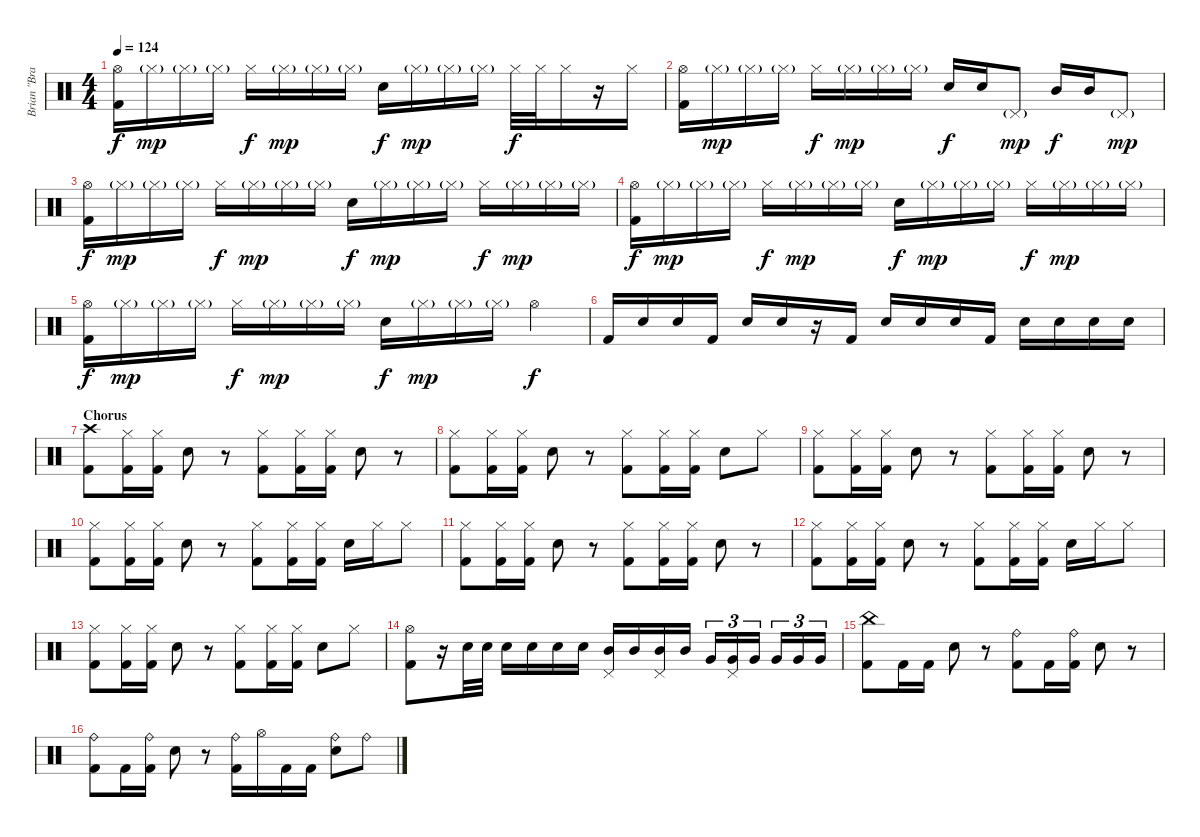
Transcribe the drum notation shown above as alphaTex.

\track ("Brian \"Brain\" Mantia / Drums" "Brian \"Bra") {instrument percussion}
\staff {score}
\articulation defaults
\ts (4 4)
\tempo 124
\clef neutral
\ks c
("Hi-Hat (open)" "Kick (hit) 2").16{dy f} "Hi-Hat (closed)"{g}.16{dy mp} "Hi-Hat (closed)"{g}.16 "Hi-Hat (closed)"{g}.16 "Hi-Hat (closed)".16{dy f} "Hi-Hat (closed)"{g}.16{dy mp} "Hi-Hat (closed)"{g}.16 "Hi-Hat (closed)"{g}.16 "Electric Snare (hit)".16{dy f} "Hi-Hat (closed)"{g}.16{dy mp} "Hi-Hat (closed)"{g}.16 "Hi-Hat (closed)"{g}.16 "Hi-Hat (closed)".32{dy f} "Hi-Hat (closed)".32 "Hi-Hat (closed)".16 r.16 "Hi-Hat (closed)".16 |
("Hi-Hat (open)" "Kick (hit) 2").16 "Hi-Hat (closed)"{g}.16{dy mp} "Hi-Hat (closed)"{g}.16 "Hi-Hat (closed)"{g}.16 "Hi-Hat (closed)".16{dy f} "Hi-Hat (closed)"{g}.16{dy mp} "Hi-Hat (closed)"{g}.16 "Hi-Hat (closed)"{g}.16 "Electric Snare (hit)".16{dy f} "Electric Snare (hit)".16 "Pedal Hi-Hat (hit)"{g}.8{dy mp} "Mid Tom (hit)".16{dy f} "Mid Tom (hit)".16 "Pedal Hi-Hat (hit)"{g}.8{dy mp} |
("Hi-Hat (open)" "Kick (hit) 2").16{dy f} "Hi-Hat (closed)"{g}.16{dy mp} "Hi-Hat (closed)"{g}.16 "Hi-Hat (closed)"{g}.16 "Hi-Hat (closed)".16{dy f} "Hi-Hat (closed)"{g}.16{dy mp} "Hi-Hat (closed)"{g}.16 "Hi-Hat (closed)"{g}.16 "Electric Snare (hit)".16{dy f} "Hi-Hat (closed)"{g}.16{dy mp} "Hi-Hat (closed)"{g}.16 "Hi-Hat (closed)"{g}.16 "Hi-Hat (closed)".16{dy f} "Hi-Hat (closed)"{g}.16{dy mp} "Hi-Hat (closed)"{g}.16 "Hi-Hat (closed)"{g}.16 |
("Hi-Hat (open)" "Kick (hit) 2").16{dy f} "Hi-Hat (closed)"{g}.16{dy mp} "Hi-Hat (closed)"{g}.16 "Hi-Hat (closed)"{g}.16 "Hi-Hat (closed)".16{dy f} "Hi-Hat (closed)"{g}.16{dy mp} "Hi-Hat (closed)"{g}.16 "Hi-Hat (closed)"{g}.16 "Electric Snare (hit)".16{dy f} "Hi-Hat (closed)"{g}.16{dy mp} "Hi-Hat (closed)"{g}.16 "Hi-Hat (closed)"{g}.16 "Hi-Hat (closed)".16{dy f} "Hi-Hat (closed)"{g}.16{dy mp} "Hi-Hat (closed)"{g}.16 "Hi-Hat (closed)"{g}.16 |
("Hi-Hat (open)" "Kick (hit) 2").16{dy f} "Hi-Hat (closed)"{g}.16{dy mp} "Hi-Hat (closed)"{g}.16 "Hi-Hat (closed)"{g}.16 "Hi-Hat (closed)".16{dy f} "Hi-Hat (closed)"{g}.16{dy mp} "Hi-Hat (closed)"{g}.16 "Hi-Hat (closed)"{g}.16 "Electric Snare (hit)".16{dy f} "Hi-Hat (closed)"{g}.16{dy mp} "Hi-Hat (closed)"{g}.16 "Hi-Hat (closed)"{g}.16 "Hi-Hat (open)".4{dy f} |
"Kick (hit) 2".16 "Electric Snare (hit)".16 "Electric Snare (hit)".16 "Kick (hit) 2".16 "Electric Snare (hit)".16 "Electric Snare (hit)".16 r.16 "Kick (hit) 2".16 "Electric Snare (hit)".16 "Electric Snare (hit)".16 "Electric Snare (hit)".16 "Kick (hit) 2".16 "Electric Snare (hit)".16 "Electric Snare (hit)".16 "Electric Snare (hit)".16 "Electric Snare (hit)".16 |
\section ("" "Chorus")
("Crash high (hit)" "Kick (hit) 2").8 ("Hi-Hat (closed)" "Kick (hit) 2").16 ("Hi-Hat (closed)" "Kick (hit) 2").16 "Electric Snare (hit)".8 r.8 ("Hi-Hat (closed)" "Kick (hit) 2").8 ("Hi-Hat (closed)" "Kick (hit) 2").16 ("Hi-Hat (closed)" "Kick (hit) 2").16 "Electric Snare (hit)".8 r.8 |
("Hi-Hat (closed)" "Kick (hit) 2").8 ("Hi-Hat (closed)" "Kick (hit) 2").16 ("Hi-Hat (closed)" "Kick (hit) 2").16 "Electric Snare (hit)".8 r.8 ("Hi-Hat (closed)" "Kick (hit) 2").8 ("Hi-Hat (closed)" "Kick (hit) 2").16 ("Hi-Hat (closed)" "Kick (hit) 2").16 "Electric Snare (hit)".8 "Hi-Hat (closed)".8 |
("Hi-Hat (closed)" "Kick (hit) 2").8 ("Hi-Hat (closed)" "Kick (hit) 2").16 ("Hi-Hat (closed)" "Kick (hit) 2").16 "Electric Snare (hit)".8 r.8 ("Hi-Hat (closed)" "Kick (hit) 2").8 ("Hi-Hat (closed)" "Kick (hit) 2").16 ("Hi-Hat (closed)" "Kick (hit) 2").16 "Electric Snare (hit)".8 r.8 |
("Hi-Hat (closed)" "Kick (hit) 2").8 ("Hi-Hat (closed)" "Kick (hit) 2").16 ("Hi-Hat (closed)" "Kick (hit) 2").16 "Electric Snare (hit)".8 r.8 ("Hi-Hat (closed)" "Kick (hit) 2").8 ("Hi-Hat (closed)" "Kick (hit) 2").16 ("Hi-Hat (closed)" "Kick (hit) 2").16 "Electric Snare (hit)".16 "Hi-Hat (closed)".16 "Hi-Hat (closed)".8 |
("Hi-Hat (closed)" "Kick (hit) 2").8 ("Hi-Hat (closed)" "Kick (hit) 2").16 ("Hi-Hat (closed)" "Kick (hit) 2").16 "Electric Snare (hit)".8 r.8 ("Hi-Hat (closed)" "Kick (hit) 2").8 ("Hi-Hat (closed)" "Kick (hit) 2").16 ("Hi-Hat (closed)" "Kick (hit) 2").16 "Electric Snare (hit)".8 r.8 |
("Hi-Hat (closed)" "Kick (hit) 2").8 ("Hi-Hat (closed)" "Kick (hit) 2").16 ("Hi-Hat (closed)" "Kick (hit) 2").16 "Electric Snare (hit)".8 r.8 ("Hi-Hat (closed)" "Kick (hit) 2").8 ("Hi-Hat (closed)" "Kick (hit) 2").16 ("Hi-Hat (closed)" "Kick (hit) 2").16 "Electric Snare (hit)".16 "Hi-Hat (closed)".16 "Hi-Hat (closed)".8 |
("Hi-Hat (closed)" "Kick (hit) 2").8 ("Hi-Hat (closed)" "Kick (hit) 2").16 ("Hi-Hat (closed)" "Kick (hit) 2").16 "Electric Snare (hit)".8 r.8 ("Hi-Hat (closed)" "Kick (hit) 2").8 ("Hi-Hat (closed)" "Kick (hit) 2").16 ("Hi-Hat (closed)" "Kick (hit) 2").16 "Electric Snare (hit)".8 "Hi-Hat (closed)".8 |
("Hi-Hat (open)" "Kick (hit) 2").8 r.16 "Electric Snare (hit)".32 "Electric Snare (hit)".32 "Electric Snare (hit)".16 "Electric Snare (hit)".16 "Electric Snare (hit)".16 "Electric Snare (hit)".16 ("Pedal Hi-Hat (hit)" "Mid Tom (hit)").16 "Mid Tom (hit)".16 ("Pedal Hi-Hat (hit)" "Mid Tom (hit)").16 "Mid Tom (hit)".16 "Very Low Tom (hit)".16{tu (3 2)} ("Pedal Hi-Hat (hit)" "Very Low Tom (hit)").16{tu (3 2)} "Very Low Tom (hit)".16{tu (3 2)} "Very Low Tom (hit)".16{tu (3 2)} "Very Low Tom (hit)".16{tu (3 2)} "Very Low Tom (hit)".16{tu (3 2)} |
("China (hit)" "Kick (hit) 2").8 "Kick (hit) 2".16 "Kick (hit) 2".16 "Electric Snare (hit)".8 r.8 ("Ride (bell)" "Kick (hit) 2").8 "Kick (hit) 2".16 ("Ride (bell)" "Kick (hit) 2").16 "Electric Snare (hit)".8 r.8 |
("Ride (bell)" "Kick (hit) 2").8 "Kick (hit) 2".16 ("Ride (bell)" "Kick (hit) 2").16 "Electric Snare (hit)".8 r.8 ("Ride (bell)" "Kick (hit) 2").16 "Hi-Hat (open)".16 "Kick (hit) 2".16 "Kick (hit) 2".16 ("Ride (bell)" "Electric Snare (hit)").8 "Ride (bell)".8
